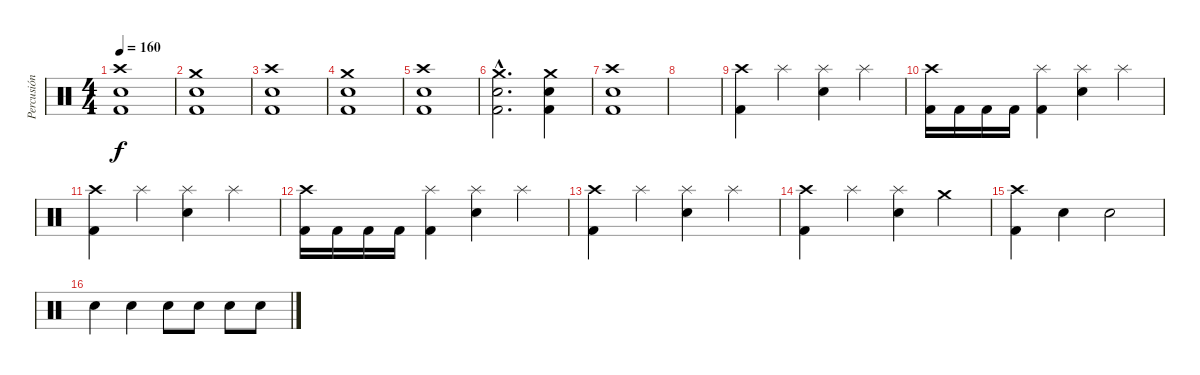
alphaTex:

\track ("Percusión" "Percusión") {instrument percussion}
\staff {score}
\articulation defaults
\ts (4 4)
\tempo 160
\clef neutral
\ks c
("Kick (hit) 2" "Snare (hit) 2" "Crash high (hit)").1{dy f} |
("Kick (hit) 2" "Snare (hit) 2" "Crash medium (hit)").1 |
("Kick (hit) 2" "Snare (hit) 2" "Crash high (hit)").1 |
("Kick (hit) 2" "Snare (hit) 2" "Crash medium (hit)").1 |
("Kick (hit) 2" "Snare (hit) 2" "Crash high (hit)").1 |
("Kick (hit) 2"{hac} "Snare (hit) 2"{hac} "Crash medium (hit)"{hac}).2{d} ("Kick (hit) 2" "Snare (hit) 2" "Crash medium (hit)").4 |
("Kick (hit) 2" "Snare (hit) 2" "Crash high (hit)").1 |
|
("Kick (hit) 2" "Crash high (hit)").4 "Splash (hit)".4 ("Snare (hit) 2" "Splash (hit)").4 "Splash (hit)".4 |
("Kick (hit) 2" "Crash high (hit)").16 "Kick (hit) 2".16 "Kick (hit) 2".16 "Kick (hit) 2".16 ("Kick (hit) 2" "Splash (hit)").4 ("Snare (hit) 2" "Splash (hit)").4 "Splash (hit)".4 |
("Kick (hit) 2" "Crash high (hit)").4 "Splash (hit)".4 ("Snare (hit) 2" "Splash (hit)").4 "Splash (hit)".4 |
("Kick (hit) 2" "Crash high (hit)").16 "Kick (hit) 2".16 "Kick (hit) 2".16 "Kick (hit) 2".16 ("Kick (hit) 2" "Splash (hit)").4 ("Snare (hit) 2" "Splash (hit)").4 "Splash (hit)".4 |
("Kick (hit) 2" "Crash high (hit)").4 "Splash (hit)".4 ("Snare (hit) 2" "Splash (hit)").4 "Splash (hit)".4 |
("Kick (hit) 2" "Crash high (hit)").4 "Splash (hit)".4 ("Snare (hit) 2" "Splash (hit)").4 "Crash medium (hit)".4 |
("Kick (hit) 2" "Crash high (hit)").4 "Snare (hit) 2".4 "Snare (hit) 2".2 |
"Snare (hit) 2".4 "Snare (hit) 2".4 "Snare (hit) 2".8 "Snare (hit) 2".8 "Snare (hit) 2".8 "Snare (hit) 2".8
